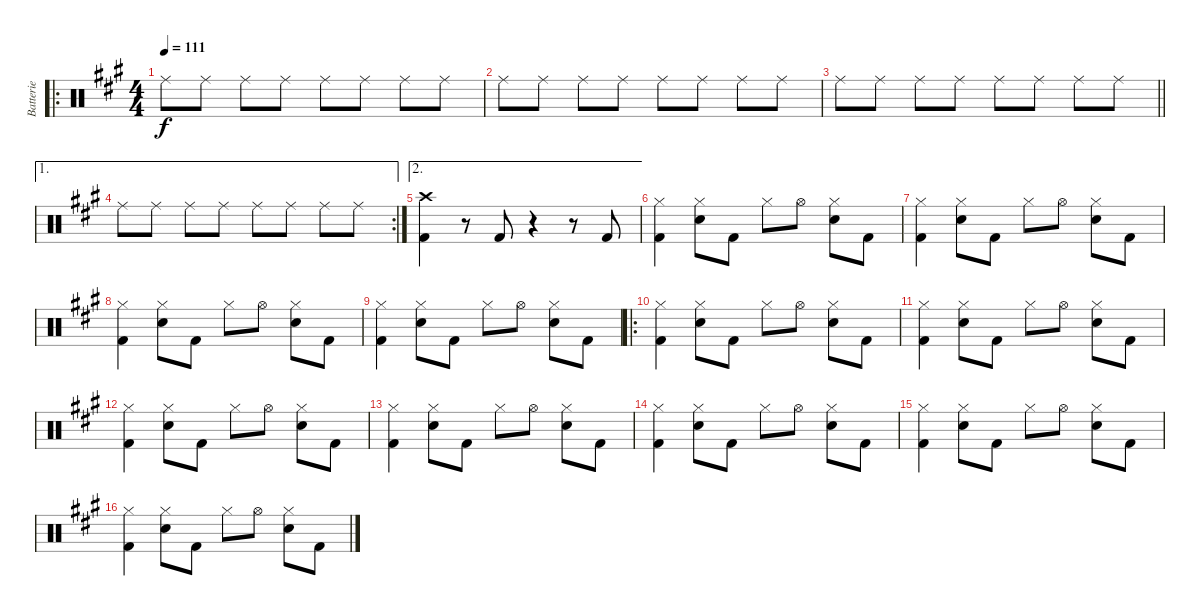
\track ("Batterie" "Batterie") {instrument percussion}
\staff {score}
\articulation defaults
\ro
\ts (4 4)
\tempo 111
\clef neutral
\ks a "Ride (middle)".8{dy f} "Ride (middle)".8 "Ride (middle)".8 "Ride (middle)".8 "Ride (middle)".8 "Ride (middle)".8 "Ride (middle)".8 "Ride (middle)".8
|
"Ride (middle)".8 "Ride (middle)".8 "Ride (middle)".8 "Ride (middle)".8 "Ride (middle)".8 "Ride (middle)".8 "Ride (middle)".8 "Ride (middle)".8 |
\barLineRight lightlight "Ride (middle)".8 "Ride (middle)".8 "Ride (middle)".8 "Ride (middle)".8 "Ride (middle)".8 "Ride (middle)".8 "Ride (middle)".8 "Ride (middle)".8
|
\ae 1
\rc 2 "Ride (middle)".8 "Ride (middle)".8 "Ride (middle)".8 "Ride (middle)".8 "Ride (middle)".8 "Ride (middle)".8 "Ride (middle)".8 "Ride (middle)".8
|
\ae 2
("Crash high (hit)" "Kick (hit) 2").4 r.8 "Kick (hit) 2".8 r.4 r.8 "Kick (hit) 2".8 |
("Hi-Hat (closed)" "Kick (hit) 2").4 ("Hi-Hat (closed)" "Snare (hit) 2").8 "Kick (hit) 2".8 "Hi-Hat (closed)".8 "Hi-Hat (open)".8 ("Hi-Hat (closed)" "Snare (hit) 2").8 "Kick (hit) 2".8 |
("Hi-Hat (closed)" "Kick (hit) 2").4 ("Hi-Hat (closed)" "Snare (hit) 2").8 "Kick (hit) 2".8 "Hi-Hat (closed)".8 "Hi-Hat (open)".8 ("Hi-Hat (closed)" "Snare (hit) 2").8 "Kick (hit) 2".8 |
("Hi-Hat (closed)" "Kick (hit) 2").4 ("Hi-Hat (closed)" "Snare (hit) 2").8 "Kick (hit) 2".8 "Hi-Hat (closed)".8 "Hi-Hat (open)".8 ("Hi-Hat (closed)" "Snare (hit) 2").8 "Kick (hit) 2".8 |
("Hi-Hat (closed)" "Kick (hit) 2").4 ("Hi-Hat (closed)" "Snare (hit) 2").8 "Kick (hit) 2".8 "Hi-Hat (closed)".8 "Hi-Hat (open)".8 ("Hi-Hat (closed)" "Snare (hit) 2").8 "Kick (hit) 2".8 |
\ro
("Hi-Hat (closed)" "Kick (hit) 2").4 ("Hi-Hat (closed)" "Snare (hit) 2").8 "Kick (hit) 2".8 "Hi-Hat (closed)".8 "Hi-Hat (open)".8 ("Hi-Hat (closed)" "Snare (hit) 2").8 "Kick (hit) 2".8 |
("Hi-Hat (closed)" "Kick (hit) 2").4 ("Hi-Hat (closed)" "Snare (hit) 2").8 "Kick (hit) 2".8 "Hi-Hat (closed)".8 "Hi-Hat (open)".8 ("Hi-Hat (closed)" "Snare (hit) 2").8 "Kick (hit) 2".8 |
("Hi-Hat (closed)" "Kick (hit) 2").4 ("Hi-Hat (closed)" "Snare (hit) 2").8 "Kick (hit) 2".8 "Hi-Hat (closed)".8 "Hi-Hat (open)".8 ("Hi-Hat (closed)" "Snare (hit) 2").8 "Kick (hit) 2".8 |
("Hi-Hat (closed)" "Kick (hit) 2").4 ("Hi-Hat (closed)" "Snare (hit) 2").8 "Kick (hit) 2".8 "Hi-Hat (closed)".8 "Hi-Hat (open)".8 ("Hi-Hat (closed)" "Snare (hit) 2").8 "Kick (hit) 2".8 |
("Hi-Hat (closed)" "Kick (hit) 2").4 ("Hi-Hat (closed)" "Snare (hit) 2").8 "Kick (hit) 2".8 "Hi-Hat (closed)".8 "Hi-Hat (open)".8 ("Hi-Hat (closed)" "Snare (hit) 2").8 "Kick (hit) 2".8 |
("Hi-Hat (closed)" "Kick (hit) 2").4 ("Hi-Hat (closed)" "Snare (hit) 2").8 "Kick (hit) 2".8 "Hi-Hat (closed)".8 "Hi-Hat (open)".8 ("Hi-Hat (closed)" "Snare (hit) 2").8 "Kick (hit) 2".8 |
("Hi-Hat (closed)" "Kick (hit) 2").4 ("Hi-Hat (closed)" "Snare (hit) 2").8 "Kick (hit) 2".8 "Hi-Hat (closed)".8 "Hi-Hat (open)".8 ("Hi-Hat (closed)" "Snare (hit) 2").8 "Kick (hit) 2".8
